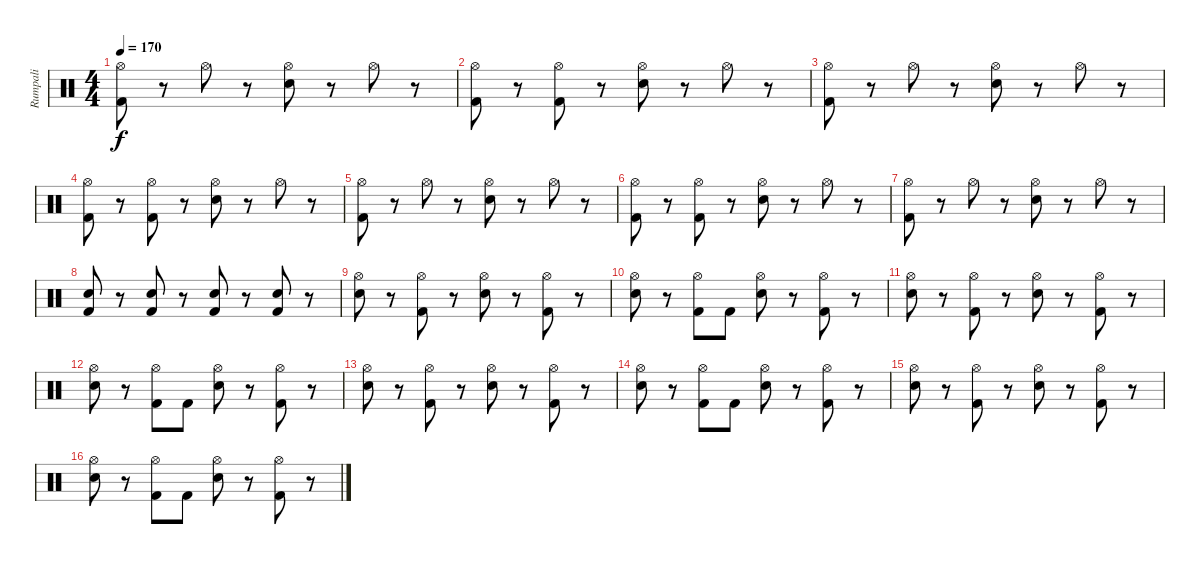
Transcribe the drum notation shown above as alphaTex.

\track ("Rumpali" "Rumpali") {instrument percussion}
\staff {score}
\articulation defaults
\ts (4 4)
\tempo 170
\clef neutral
\ks c
("Hi-Hat (open)" "Kick (hit) 2").8{dy f} r.8 "Hi-Hat (open)".8 r.8 ("Hi-Hat (open)" "Electric Snare (hit)").8 r.8 "Hi-Hat (open)".8 r.8 |
("Hi-Hat (open)" "Kick (hit) 2").8 r.8 ("Hi-Hat (open)" "Kick (hit) 2").8 r.8 ("Hi-Hat (open)" "Electric Snare (hit)").8 r.8 "Hi-Hat (open)".8 r.8 |
("Hi-Hat (open)" "Kick (hit) 2").8 r.8 "Hi-Hat (open)".8 r.8 ("Hi-Hat (open)" "Electric Snare (hit)").8 r.8 "Hi-Hat (open)".8 r.8 |
("Hi-Hat (open)" "Kick (hit) 2").8 r.8 ("Hi-Hat (open)" "Kick (hit) 2").8 r.8 ("Hi-Hat (open)" "Electric Snare (hit)").8 r.8 "Hi-Hat (open)".8 r.8 |
("Hi-Hat (open)" "Kick (hit) 2").8 r.8 "Hi-Hat (open)".8 r.8 ("Hi-Hat (open)" "Electric Snare (hit)").8 r.8 "Hi-Hat (open)".8 r.8 |
("Hi-Hat (open)" "Kick (hit) 2").8 r.8 ("Hi-Hat (open)" "Kick (hit) 2").8 r.8 ("Hi-Hat (open)" "Electric Snare (hit)").8 r.8 "Hi-Hat (open)".8 r.8 |
("Hi-Hat (open)" "Kick (hit) 2").8 r.8 "Hi-Hat (open)".8 r.8 ("Hi-Hat (open)" "Electric Snare (hit)").8 r.8 "Hi-Hat (open)".8 r.8 |
("Electric Snare (hit)" "Kick (hit) 2").8 r.8 ("Electric Snare (hit)" "Kick (hit) 2").8 r.8 ("Electric Snare (hit)" "Kick (hit) 2").8 r.8 ("Electric Snare (hit)" "Kick (hit) 2").8 r.8 |
("Hi-Hat (open)" "Electric Snare (hit)").8 r.8 ("Hi-Hat (open)" "Kick (hit) 2").8 r.8 ("Hi-Hat (open)" "Electric Snare (hit)").8 r.8 ("Hi-Hat (open)" "Kick (hit) 2").8 r.8 |
("Hi-Hat (open)" "Electric Snare (hit)").8 r.8 ("Hi-Hat (open)" "Kick (hit) 2").8 "Kick (hit) 2".8 ("Hi-Hat (open)" "Electric Snare (hit)").8 r.8 ("Hi-Hat (open)" "Kick (hit) 2").8 r.8 |
("Hi-Hat (open)" "Electric Snare (hit)").8 r.8 ("Hi-Hat (open)" "Kick (hit) 2").8 r.8 ("Hi-Hat (open)" "Electric Snare (hit)").8 r.8 ("Hi-Hat (open)" "Kick (hit) 2").8 r.8 |
("Hi-Hat (open)" "Electric Snare (hit)").8 r.8 ("Hi-Hat (open)" "Kick (hit) 2").8 "Kick (hit) 2".8 ("Hi-Hat (open)" "Electric Snare (hit)").8 r.8 ("Hi-Hat (open)" "Kick (hit) 2").8 r.8 |
("Hi-Hat (open)" "Electric Snare (hit)").8 r.8 ("Hi-Hat (open)" "Kick (hit) 2").8 r.8 ("Hi-Hat (open)" "Electric Snare (hit)").8 r.8 ("Hi-Hat (open)" "Kick (hit) 2").8 r.8 |
("Hi-Hat (open)" "Electric Snare (hit)").8 r.8 ("Hi-Hat (open)" "Kick (hit) 2").8 "Kick (hit) 2".8 ("Hi-Hat (open)" "Electric Snare (hit)").8 r.8 ("Hi-Hat (open)" "Kick (hit) 2").8 r.8 |
("Hi-Hat (open)" "Electric Snare (hit)").8 r.8 ("Hi-Hat (open)" "Kick (hit) 2").8 r.8 ("Hi-Hat (open)" "Electric Snare (hit)").8 r.8 ("Hi-Hat (open)" "Kick (hit) 2").8 r.8 |
("Hi-Hat (open)" "Electric Snare (hit)").8 r.8 ("Hi-Hat (open)" "Kick (hit) 2").8 "Kick (hit) 2".8 ("Hi-Hat (open)" "Electric Snare (hit)").8 r.8 ("Hi-Hat (open)" "Kick (hit) 2").8 r.8
